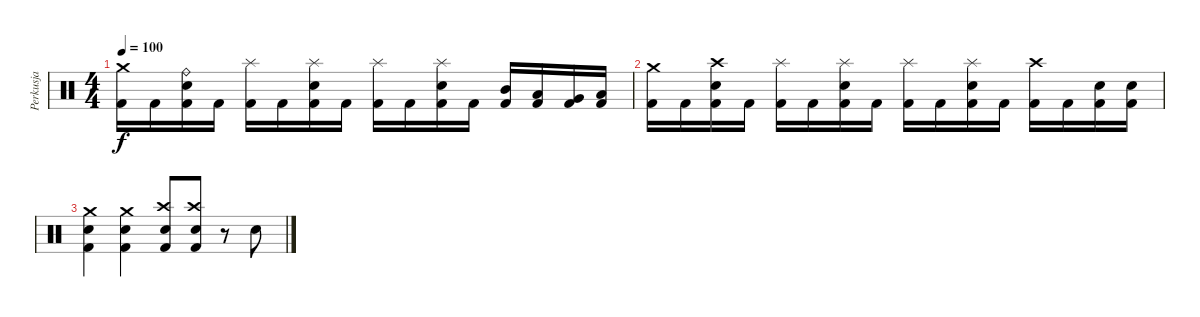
\track ("Perkusja" "Perkusja") {instrument percussion}
\staff {score}
\articulation defaults
\ts (4 4)
\tempo 100
\clef neutral
\ks c
("Crash medium (hit)" "Kick (hit) 2").16{dy f volume 5} "Kick (hit) 2".16 ("Ride (bell)" "Electric Snare (hit)" "Kick (hit) 2").16{volume 4} "Kick (hit) 2".16 ("Splash (hit)" "Kick (hit) 2").16{volume 3} "Kick (hit) 2".16 ("Splash (hit)" "Electric Snare (hit)" "Kick (hit) 2").16{volume 2} "Kick (hit) 2".16 ("Splash (hit)" "Kick (hit) 2").16{volume 1} "Kick (hit) 2".16 ("Splash (hit)" "Electric Snare (hit)" "Kick (hit) 2").16{volume 0} "Kick (hit) 2".16 ("Mid Tom (hit)" "Kick (hit) 2").16 ("Low Tom (hit)" "Kick (hit) 2").16 ("Very Low Tom (hit)" "Kick (hit) 2").16 ("Low Floor Tom (hit)" "Kick (hit) 2").16 |
("Crash medium (hit)" "Kick (hit) 2").16 "Kick (hit) 2".16 ("Crash high (hit)" "Electric Snare (hit)" "Kick (hit) 2").16 "Kick (hit) 2".16 ("Splash (hit)" "Kick (hit) 2").16 "Kick (hit) 2".16 ("Splash (hit)" "Electric Snare (hit)" "Kick (hit) 2").16 "Kick (hit) 2".16 ("Splash (hit)" "Kick (hit) 2").16 "Kick (hit) 2".16 ("Splash (hit)" "Electric Snare (hit)" "Kick (hit) 2").16 "Kick (hit) 2".16 ("Crash high (hit)" "Kick (hit) 2").16 "Kick (hit) 2".16 ("Electric Snare (hit)" "Kick (hit) 2").16 ("Kick (hit) 2" "Electric Snare (hit)").16 |
("Crash medium (hit)" "Electric Snare (hit)" "Kick (hit) 2").4 ("Crash medium (hit)" "Electric Snare (hit)" "Kick (hit) 2").4 ("Crash high (hit)" "Snare (hit) 2" "Kick (hit) 2").8 ("Crash high (hit)" "Snare (hit) 2" "Kick (hit) 2").8 r.8 "Electric Snare (hit)".8
